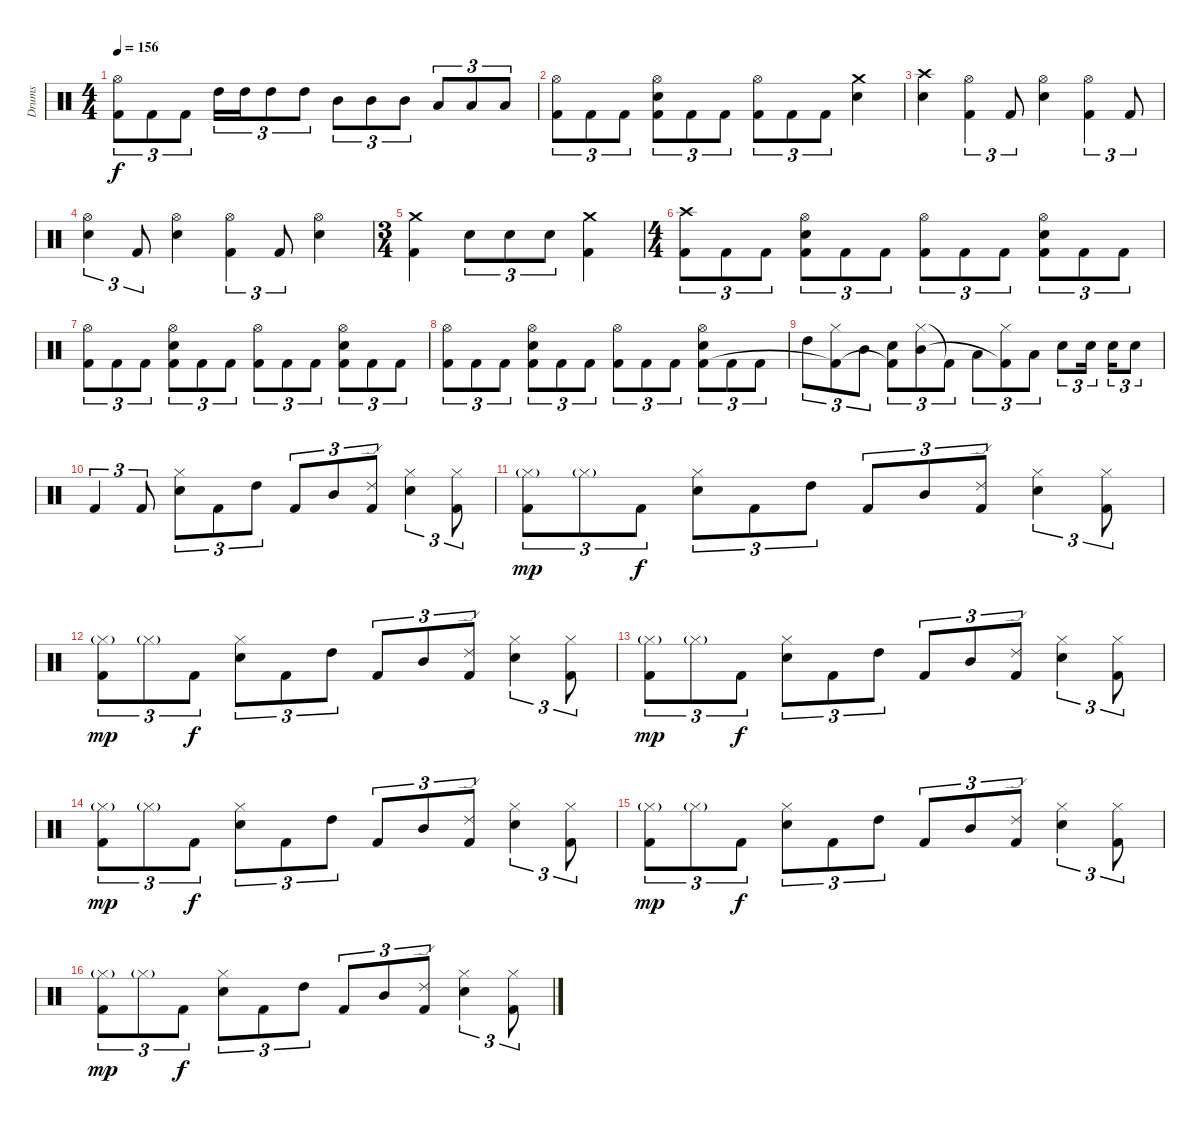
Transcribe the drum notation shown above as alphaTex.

\track ("Drums" "Drums") {instrument percussion}
\staff {score}
\articulation defaults
\ts (4 4)
\tempo 156
\clef neutral
\ks c
("Hi-Hat (open)" "Kick (hit) 2").8{tu (3 2) dy f} "Kick (hit) 2".8{tu (3 2)} "Kick (hit) 2".8{tu (3 2)} "High Tom (hit)".16{tu (3 2)} "High Tom (hit)".16{tu (3 2)} "High Tom (hit)".8{tu (3 2)} "High Tom (hit)".8{tu (3 2)} "Mid Tom (hit)".8{tu (3 2)} "Mid Tom (hit)".8{tu (3 2)} "Mid Tom (hit)".8{tu (3 2)} "Low Tom (hit)".8{tu (3 2)} "Low Tom (hit)".8{tu (3 2)} "Low Tom (hit)".8{tu (3 2)} |
("Hi-Hat (open)" "Kick (hit) 2").8{tu (3 2)} "Kick (hit) 2".8{tu (3 2)} "Kick (hit) 2".8{tu (3 2)} ("Electric Snare (hit)" "Kick (hit) 2" "Hi-Hat (open)").8{tu (3 2)} "Kick (hit) 2".8{tu (3 2)} "Kick (hit) 2".8{tu (3 2)} ("Hi-Hat (open)" "Kick (hit) 2").8{tu (3 2)} "Kick (hit) 2".8{tu (3 2)} "Kick (hit) 2".8{tu (3 2)} ("Crash medium (hit)" "Electric Snare (hit)").4 |
("Crash high (hit)" "Electric Snare (hit)").4 ("Hi-Hat (open)" "Kick (hit) 2").4{tu (3 2)} "Kick (hit) 2".8{tu (3 2)} ("Hi-Hat (open)" "Electric Snare (hit)").4 ("Hi-Hat (open)" "Kick (hit) 2").4{tu (3 2)} "Kick (hit) 2".8{tu (3 2)} |
("Hi-Hat (open)" "Electric Snare (hit)").4{tu (3 2)} "Kick (hit) 2".8{tu (3 2)} ("Hi-Hat (open)" "Electric Snare (hit)").4 ("Hi-Hat (open)" "Kick (hit) 2").4{tu (3 2)} "Kick (hit) 2".8{tu (3 2)} ("Hi-Hat (open)" "Electric Snare (hit)").4 |
\ts (3 4)
("Crash medium (hit)" "Kick (hit) 2").4 "Electric Snare (hit)".8{tu (3 2)} "Electric Snare (hit)".8{tu (3 2)} "Electric Snare (hit)".8{tu (3 2)} ("Crash medium (hit)" "Kick (hit) 2").4 |
\ts (4 4)
("Crash high (hit)" "Kick (hit) 2").8{tu (3 2)} "Kick (hit) 2".8{tu (3 2)} "Kick (hit) 2".8{tu (3 2)} ("Electric Snare (hit)" "Kick (hit) 2" "Hi-Hat (open)").8{tu (3 2)} "Kick (hit) 2".8{tu (3 2)} "Kick (hit) 2".8{tu (3 2)} ("Hi-Hat (open)" "Kick (hit) 2").8{tu (3 2)} "Kick (hit) 2".8{tu (3 2)} "Kick (hit) 2".8{tu (3 2)} ("Electric Snare (hit)" "Kick (hit) 2" "Hi-Hat (open)").8{tu (3 2)} "Kick (hit) 2".8{tu (3 2)} "Kick (hit) 2".8{tu (3 2)} |
("Hi-Hat (open)" "Kick (hit) 2").8{tu (3 2)} "Kick (hit) 2".8{tu (3 2)} "Kick (hit) 2".8{tu (3 2)} ("Electric Snare (hit)" "Kick (hit) 2" "Hi-Hat (open)").8{tu (3 2)} "Kick (hit) 2".8{tu (3 2)} "Kick (hit) 2".8{tu (3 2)} ("Hi-Hat (open)" "Kick (hit) 2").8{tu (3 2)} "Kick (hit) 2".8{tu (3 2)} "Kick (hit) 2".8{tu (3 2)} ("Electric Snare (hit)" "Kick (hit) 2" "Hi-Hat (open)").8{tu (3 2)} "Kick (hit) 2".8{tu (3 2)} "Kick (hit) 2".8{tu (3 2)} |
("Hi-Hat (open)" "Kick (hit) 2").8{tu (3 2)} "Kick (hit) 2".8{tu (3 2)} "Kick (hit) 2".8{tu (3 2)} ("Electric Snare (hit)" "Kick (hit) 2" "Hi-Hat (open)").8{tu (3 2)} "Kick (hit) 2".8{tu (3 2)} "Kick (hit) 2".8{tu (3 2)} ("Hi-Hat (open)" "Kick (hit) 2").8{tu (3 2)} "Kick (hit) 2".8{tu (3 2)} "Kick (hit) 2".8{tu (3 2)} ("Electric Snare (hit)" "Kick (hit) 2" "Hi-Hat (open)").8{tu (3 2)} "Kick (hit) 2".8{tu (3 2)} "Kick (hit) 2".8{tu (3 2)} |
"High Tom (hit)".8{tu (3 2)} ("Hi-Hat (closed)" "Kick (hit) 2"{t}).8{tu (3 2)} "Mid Tom (hit)".8{tu (3 2)} ("Electric Snare (hit)" "Kick (hit) 2"{t}).8{tu (3 2)} ("Hi-Hat (closed)" "Mid Tom (hit)").8{tu (3 2)} "Kick (hit) 2"{t}.8{tu (3 2)} "Low Tom (hit)".8{tu (3 2)} ("Hi-Hat (closed)" "Kick (hit) 2"{t}).8{tu (3 2)} "Low Tom (hit)".8{tu (3 2)} "Electric Snare (hit)".8{tu (3 2)} "Electric Snare (hit)".16{tu (3 2)} "Electric Snare (hit)".16{tu (3 2)} "Electric Snare (hit)".8{tu (3 2)} |
"Kick (hit) 2".4{tu (3 2)} "Kick (hit) 2".8{tu (3 2)} ("Hi-Hat (closed)" "Electric Snare (hit)").8{tu (3 2)} "Kick (hit) 2".8{tu (3 2)} "High Tom (hit)".8{tu (3 2)} "Kick (hit) 2".8{tu (3 2)} "Mid Tom (hit)".8{tu (3 2)} ("Ride (edge) 2" "Kick (hit) 2").8{tu (3 2)} ("Hi-Hat (closed)" "Electric Snare (hit)").4{tu (3 2)} ("Hi-Hat (closed)" "Kick (hit) 2").8{tu (3 2)} |
("Hi-Hat (closed)"{g} "Kick (hit) 2").8{tu (3 2) dy mp} "Hi-Hat (closed)"{g}.8{tu (3 2)} "Kick (hit) 2".8{tu (3 2) dy f} ("Hi-Hat (closed)" "Electric Snare (hit)").8{tu (3 2)} "Kick (hit) 2".8{tu (3 2)} "High Tom (hit)".8{tu (3 2)} "Kick (hit) 2".8{tu (3 2)} "Mid Tom (hit)".8{tu (3 2)} ("Ride (edge) 2" "Kick (hit) 2").8{tu (3 2)} ("Hi-Hat (closed)" "Electric Snare (hit)").4{tu (3 2)} ("Hi-Hat (closed)" "Kick (hit) 2").8{tu (3 2)} |
("Hi-Hat (closed)"{g} "Kick (hit) 2").8{tu (3 2) dy mp} "Hi-Hat (closed)"{g}.8{tu (3 2)} "Kick (hit) 2".8{tu (3 2) dy f} ("Hi-Hat (closed)" "Electric Snare (hit)").8{tu (3 2)} "Kick (hit) 2".8{tu (3 2)} "High Tom (hit)".8{tu (3 2)} "Kick (hit) 2".8{tu (3 2)} "Mid Tom (hit)".8{tu (3 2)} ("Ride (edge) 2" "Kick (hit) 2").8{tu (3 2)} ("Hi-Hat (closed)" "Electric Snare (hit)").4{tu (3 2)} ("Hi-Hat (closed)" "Kick (hit) 2").8{tu (3 2)} |
("Hi-Hat (closed)"{g} "Kick (hit) 2").8{tu (3 2) dy mp} "Hi-Hat (closed)"{g}.8{tu (3 2)} "Kick (hit) 2".8{tu (3 2) dy f} ("Hi-Hat (closed)" "Electric Snare (hit)").8{tu (3 2)} "Kick (hit) 2".8{tu (3 2)} "High Tom (hit)".8{tu (3 2)} "Kick (hit) 2".8{tu (3 2)} "Mid Tom (hit)".8{tu (3 2)} ("Ride (edge) 2" "Kick (hit) 2").8{tu (3 2)} ("Hi-Hat (closed)" "Electric Snare (hit)").4{tu (3 2)} ("Hi-Hat (closed)" "Kick (hit) 2").8{tu (3 2)} |
("Hi-Hat (closed)"{g} "Kick (hit) 2").8{tu (3 2) dy mp} "Hi-Hat (closed)"{g}.8{tu (3 2)} "Kick (hit) 2".8{tu (3 2) dy f} ("Hi-Hat (closed)" "Electric Snare (hit)").8{tu (3 2)} "Kick (hit) 2".8{tu (3 2)} "High Tom (hit)".8{tu (3 2)} "Kick (hit) 2".8{tu (3 2)} "Mid Tom (hit)".8{tu (3 2)} ("Ride (edge) 2" "Kick (hit) 2").8{tu (3 2)} ("Hi-Hat (closed)" "Electric Snare (hit)").4{tu (3 2)} ("Hi-Hat (closed)" "Kick (hit) 2").8{tu (3 2)} |
("Hi-Hat (closed)"{g} "Kick (hit) 2").8{tu (3 2) dy mp} "Hi-Hat (closed)"{g}.8{tu (3 2)} "Kick (hit) 2".8{tu (3 2) dy f} ("Hi-Hat (closed)" "Electric Snare (hit)").8{tu (3 2)} "Kick (hit) 2".8{tu (3 2)} "High Tom (hit)".8{tu (3 2)} "Kick (hit) 2".8{tu (3 2)} "Mid Tom (hit)".8{tu (3 2)} ("Ride (edge) 2" "Kick (hit) 2").8{tu (3 2)} ("Hi-Hat (closed)" "Electric Snare (hit)").4{tu (3 2)} ("Hi-Hat (closed)" "Kick (hit) 2").8{tu (3 2)} |
("Hi-Hat (closed)"{g} "Kick (hit) 2").8{tu (3 2) dy mp} "Hi-Hat (closed)"{g}.8{tu (3 2)} "Kick (hit) 2".8{tu (3 2) dy f} ("Hi-Hat (closed)" "Electric Snare (hit)").8{tu (3 2)} "Kick (hit) 2".8{tu (3 2)} "High Tom (hit)".8{tu (3 2)} "Kick (hit) 2".8{tu (3 2)} "Mid Tom (hit)".8{tu (3 2)} ("Ride (edge) 2" "Kick (hit) 2").8{tu (3 2)} ("Hi-Hat (closed)" "Electric Snare (hit)").4{tu (3 2)} ("Hi-Hat (closed)" "Kick (hit) 2").8{tu (3 2)}
